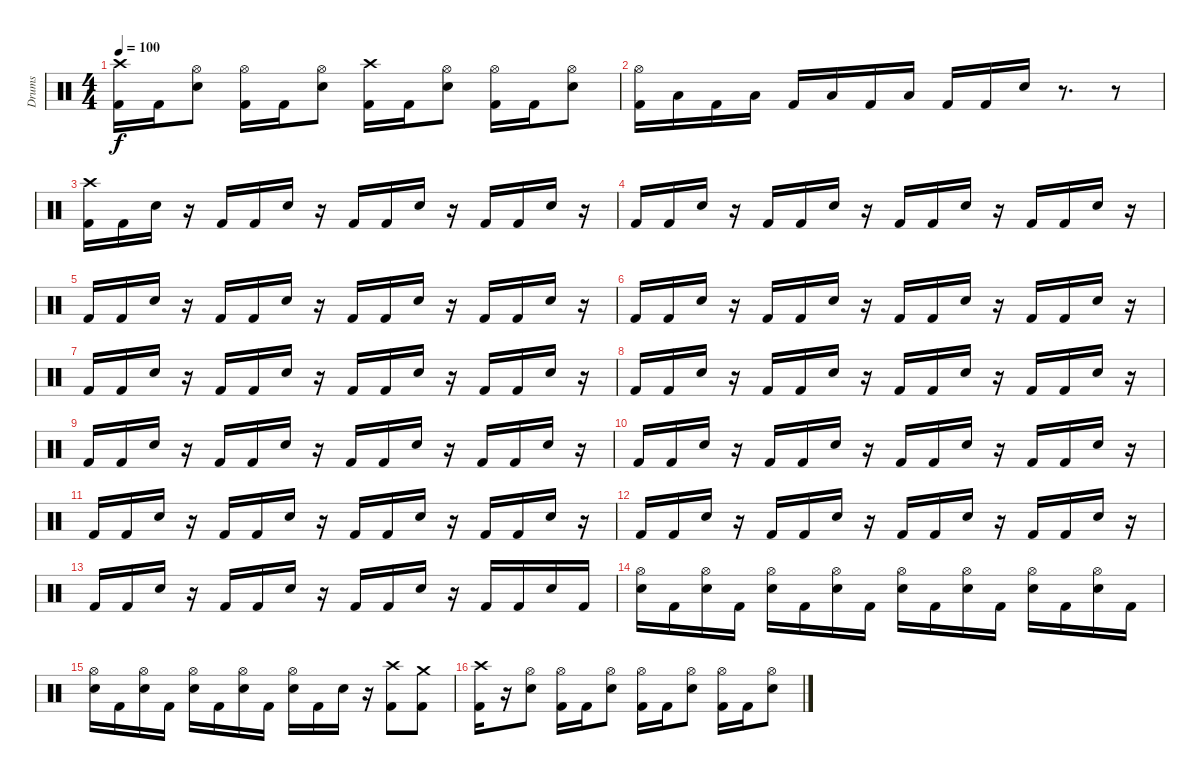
\track ("Drums" "Drums") {instrument percussion}
\staff {score}
\articulation defaults
\ts (4 4)
\tempo 100
\clef neutral
\ks c
("Crash high (hit)" "Kick (hit) 2").16{dy f} "Kick (hit) 2".16 ("Hi-Hat (open)" "Electric Snare (hit)").8 ("Hi-Hat (open)" "Kick (hit) 2").16 "Kick (hit) 2".16 ("Hi-Hat (open)" "Electric Snare (hit)").8 ("Crash high (hit)" "Kick (hit) 2").16 "Kick (hit) 2".16 ("Hi-Hat (open)" "Electric Snare (hit)").8 ("Hi-Hat (open)" "Kick (hit) 2").16 "Kick (hit) 2".16 ("Hi-Hat (open)" "Electric Snare (hit)").8 |
("Hi-Hat (open)" "Kick (hit) 2").16 "Low Tom (hit)".16 "Kick (hit) 2".16 "Low Tom (hit)".16 "Kick (hit) 2".16 "Low Tom (hit)".16 "Kick (hit) 2".16 "Low Tom (hit)".16 "Kick (hit) 2".16 "Kick (hit) 2".16 "Electric Snare (hit)".16 r.8{d} r.8 |
("Crash high (hit)" "Kick (hit) 2").16 "Kick (hit) 2".16 "Electric Snare (hit)".16 r.16 "Kick (hit) 2".16 "Kick (hit) 2".16 "Electric Snare (hit)".16 r.16 "Kick (hit) 2".16 "Kick (hit) 2".16 "Electric Snare (hit)".16 r.16 "Kick (hit) 2".16 "Kick (hit) 2".16 "Electric Snare (hit)".16 r.16 |
"Kick (hit) 2".16 "Kick (hit) 2".16 "Electric Snare (hit)".16 r.16 "Kick (hit) 2".16 "Kick (hit) 2".16 "Electric Snare (hit)".16 r.16 "Kick (hit) 2".16 "Kick (hit) 2".16 "Electric Snare (hit)".16 r.16 "Kick (hit) 2".16 "Kick (hit) 2".16 "Electric Snare (hit)".16 r.16 |
"Kick (hit) 2".16 "Kick (hit) 2".16 "Electric Snare (hit)".16 r.16 "Kick (hit) 2".16 "Kick (hit) 2".16 "Electric Snare (hit)".16 r.16 "Kick (hit) 2".16 "Kick (hit) 2".16 "Electric Snare (hit)".16 r.16 "Kick (hit) 2".16 "Kick (hit) 2".16 "Electric Snare (hit)".16 r.16 |
"Kick (hit) 2".16 "Kick (hit) 2".16 "Electric Snare (hit)".16 r.16 "Kick (hit) 2".16 "Kick (hit) 2".16 "Electric Snare (hit)".16 r.16 "Kick (hit) 2".16 "Kick (hit) 2".16 "Electric Snare (hit)".16 r.16 "Kick (hit) 2".16 "Kick (hit) 2".16 "Electric Snare (hit)".16 r.16 |
"Kick (hit) 2".16 "Kick (hit) 2".16 "Electric Snare (hit)".16 r.16 "Kick (hit) 2".16 "Kick (hit) 2".16 "Electric Snare (hit)".16 r.16 "Kick (hit) 2".16 "Kick (hit) 2".16 "Electric Snare (hit)".16 r.16 "Kick (hit) 2".16 "Kick (hit) 2".16 "Electric Snare (hit)".16 r.16 |
"Kick (hit) 2".16 "Kick (hit) 2".16 "Electric Snare (hit)".16 r.16 "Kick (hit) 2".16 "Kick (hit) 2".16 "Electric Snare (hit)".16 r.16 "Kick (hit) 2".16 "Kick (hit) 2".16 "Electric Snare (hit)".16 r.16 "Kick (hit) 2".16 "Kick (hit) 2".16 "Electric Snare (hit)".16 r.16 |
"Kick (hit) 2".16 "Kick (hit) 2".16 "Electric Snare (hit)".16 r.16 "Kick (hit) 2".16 "Kick (hit) 2".16 "Electric Snare (hit)".16 r.16 "Kick (hit) 2".16 "Kick (hit) 2".16 "Electric Snare (hit)".16 r.16 "Kick (hit) 2".16 "Kick (hit) 2".16 "Electric Snare (hit)".16 r.16 |
"Kick (hit) 2".16 "Kick (hit) 2".16 "Electric Snare (hit)".16 r.16 "Kick (hit) 2".16 "Kick (hit) 2".16 "Electric Snare (hit)".16 r.16 "Kick (hit) 2".16 "Kick (hit) 2".16 "Electric Snare (hit)".16 r.16 "Kick (hit) 2".16 "Kick (hit) 2".16 "Electric Snare (hit)".16 r.16 |
"Kick (hit) 2".16 "Kick (hit) 2".16 "Electric Snare (hit)".16 r.16 "Kick (hit) 2".16 "Kick (hit) 2".16 "Electric Snare (hit)".16 r.16 "Kick (hit) 2".16 "Kick (hit) 2".16 "Electric Snare (hit)".16 r.16 "Kick (hit) 2".16 "Kick (hit) 2".16 "Electric Snare (hit)".16 r.16 |
"Kick (hit) 2".16 "Kick (hit) 2".16 "Electric Snare (hit)".16 r.16 "Kick (hit) 2".16 "Kick (hit) 2".16 "Electric Snare (hit)".16 r.16 "Kick (hit) 2".16 "Kick (hit) 2".16 "Electric Snare (hit)".16 r.16 "Kick (hit) 2".16 "Kick (hit) 2".16 "Electric Snare (hit)".16 r.16 |
"Kick (hit) 2".16 "Kick (hit) 2".16 "Electric Snare (hit)".16 r.16 "Kick (hit) 2".16 "Kick (hit) 2".16 "Electric Snare (hit)".16 r.16 "Kick (hit) 2".16 "Kick (hit) 2".16 "Electric Snare (hit)".16 r.16 "Kick (hit) 2".16 "Kick (hit) 2".16 "Electric Snare (hit)".16 "Kick (hit) 2".16 |
("Hi-Hat (open)" "Electric Snare (hit)").16 "Kick (hit) 2".16 ("Hi-Hat (open)" "Electric Snare (hit)").16 "Kick (hit) 2".16 ("Hi-Hat (open)" "Electric Snare (hit)").16 "Kick (hit) 2".16 ("Hi-Hat (open)" "Electric Snare (hit)").16 "Kick (hit) 2".16 ("Hi-Hat (open)" "Electric Snare (hit)").16 "Kick (hit) 2".16 ("Hi-Hat (open)" "Electric Snare (hit)").16 "Kick (hit) 2".16 ("Hi-Hat (open)" "Electric Snare (hit)").16 "Kick (hit) 2".16 ("Hi-Hat (open)" "Electric Snare (hit)").16 "Kick (hit) 2".16 |
("Hi-Hat (open)" "Electric Snare (hit)").16 "Kick (hit) 2".16 ("Hi-Hat (open)" "Electric Snare (hit)").16 "Kick (hit) 2".16 ("Hi-Hat (open)" "Electric Snare (hit)").16 "Kick (hit) 2".16 ("Hi-Hat (open)" "Electric Snare (hit)").16 "Kick (hit) 2".16 ("Hi-Hat (open)" "Electric Snare (hit)").16 "Kick (hit) 2".16 "Electric Snare (hit)".16 r.16 ("Crash high (hit)" "Kick (hit) 2").8 ("Crash medium (hit)" "Kick (hit) 2").8 |
("Crash high (hit)" "Kick (hit) 2").16 r.16 ("Hi-Hat (open)" "Electric Snare (hit)").8 ("Hi-Hat (open)" "Kick (hit) 2").16 "Kick (hit) 2".16 ("Hi-Hat (open)" "Electric Snare (hit)").8 ("Hi-Hat (open)" "Kick (hit) 2").16 "Kick (hit) 2".16 ("Hi-Hat (open)" "Electric Snare (hit)").8 ("Hi-Hat (open)" "Kick (hit) 2").16 "Kick (hit) 2".16 ("Hi-Hat (open)" "Electric Snare (hit)").8
